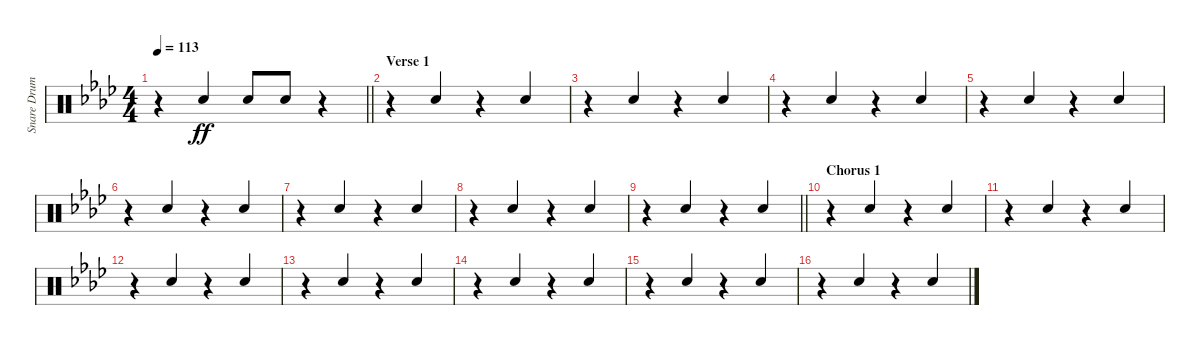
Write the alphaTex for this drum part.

\track ("Snare Drum" "Snare Drum") {instrument percussion}
\staff {score}
\articulation defaults
\ts (4 4)
\tempo 113
\clef neutral
\barLineRight lightlight
\ks fminor
r.4{dy ff} "Electric Snare (hit)".4{beam Up} "Electric Snare (hit)".8{beam Up} "Electric Snare (hit)".8{beam Up} r.4 |
\section ("" "Verse 1")
r.4 "Electric Snare (hit)".4{beam Up} r.4 "Electric Snare (hit)".4{beam Up} |
r.4 "Electric Snare (hit)".4{beam Up} r.4 "Electric Snare (hit)".4{beam Up} |
r.4 "Electric Snare (hit)".4{beam Up} r.4 "Electric Snare (hit)".4{beam Up} |
r.4 "Electric Snare (hit)".4{beam Up} r.4 "Electric Snare (hit)".4{beam Up} |
r.4 "Electric Snare (hit)".4{beam Up} r.4 "Electric Snare (hit)".4{beam Up} |
r.4 "Electric Snare (hit)".4{beam Up} r.4 "Electric Snare (hit)".4{beam Up} |
r.4 "Electric Snare (hit)".4{beam Up} r.4 "Electric Snare (hit)".4{beam Up} |
\barLineRight lightlight
r.4 "Electric Snare (hit)".4{beam Up} r.4 "Electric Snare (hit)".4{beam Up} |
\section ("" "Chorus 1")
r.4 "Electric Snare (hit)".4{beam Up} r.4 "Electric Snare (hit)".4{beam Up} |
r.4 "Electric Snare (hit)".4{beam Up} r.4 "Electric Snare (hit)".4{beam Up} |
r.4 "Electric Snare (hit)".4{beam Up} r.4 "Electric Snare (hit)".4{beam Up} |
r.4 "Electric Snare (hit)".4{beam Up} r.4 "Electric Snare (hit)".4{beam Up} |
r.4 "Electric Snare (hit)".4{beam Up} r.4 "Electric Snare (hit)".4{beam Up} |
r.4 "Electric Snare (hit)".4{beam Up} r.4 "Electric Snare (hit)".4{beam Up} |
r.4 "Electric Snare (hit)".4{beam Up} r.4 "Electric Snare (hit)".4{beam Up}
